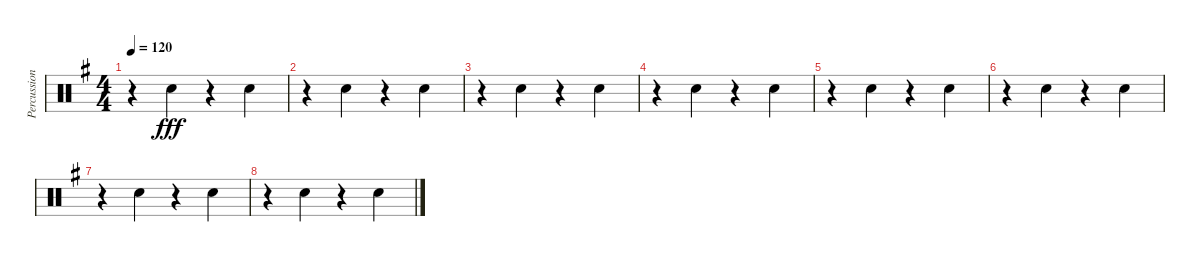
\track ("Percussion" "Percussion") {instrument percussion}
\staff {score}
\articulation defaults
\ts (4 4)
\tempo 120
\clef neutral
\ks g
r.4{dy fff} "Hand Clap (hit)".4 r.4 "Hand Clap (hit)".4 |
r.4 "Hand Clap (hit)".4 r.4 "Hand Clap (hit)".4 |
r.4 "Hand Clap (hit)".4 r.4 "Hand Clap (hit)".4 |
r.4 "Hand Clap (hit)".4 r.4 "Hand Clap (hit)".4 |
r.4 "Hand Clap (hit)".4 r.4 "Hand Clap (hit)".4 |
r.4 "Hand Clap (hit)".4 r.4 "Hand Clap (hit)".4 |
r.4 "Hand Clap (hit)".4 r.4 "Hand Clap (hit)".4 |
r.4 "Hand Clap (hit)".4 r.4 "Hand Clap (hit)".4
